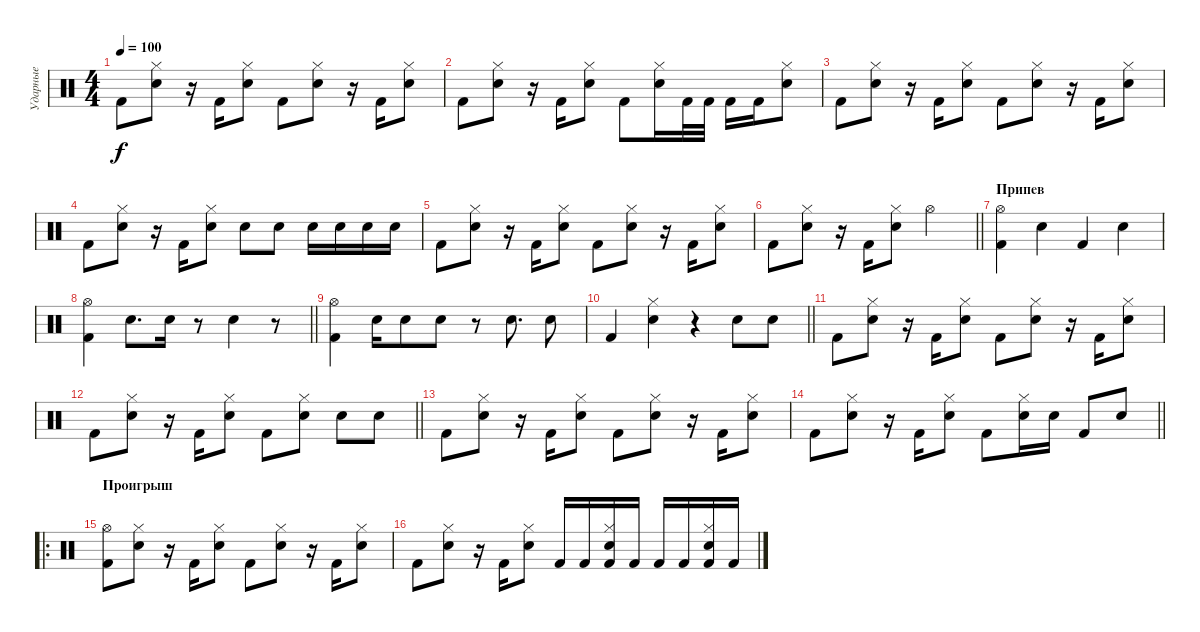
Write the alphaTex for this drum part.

\track ("Ударные" "Ударные") {instrument percussion}
\staff {score}
\articulation defaults
\ts (4 4)
\tempo 100
\clef neutral
\ks c "Kick (hit) 2".8{dy f}
("Hi-Hat (closed)" "Snare (hit) 2").8 r.16 "Kick (hit) 2".16 ("Hi-Hat (closed)" "Snare (hit) 2").8 "Kick (hit) 2".8 ("Hi-Hat (closed)" "Snare (hit) 2").8 r.16 "Kick (hit) 2".16 ("Hi-Hat (closed)" "Snare (hit) 2").8 |
"Kick (hit) 2".8 ("Hi-Hat (closed)" "Snare (hit) 2").8 r.16 "Kick (hit) 2".16 ("Hi-Hat (closed)" "Snare (hit) 2").8 "Kick (hit) 2".8 ("Hi-Hat (closed)" "Snare (hit) 2").16 "Kick (hit) 2".32 "Kick (hit) 2".32 "Kick (hit) 2".16 "Kick (hit) 2".16 ("Hi-Hat (closed)" "Snare (hit) 2").8 |
"Kick (hit) 2".8 ("Hi-Hat (closed)" "Snare (hit) 2").8 r.16 "Kick (hit) 2".16 ("Hi-Hat (closed)" "Snare (hit) 2").8 "Kick (hit) 2".8 ("Hi-Hat (closed)" "Snare (hit) 2").8 r.16 "Kick (hit) 2".16 ("Hi-Hat (closed)" "Snare (hit) 2").8 |
"Kick (hit) 2".8 ("Hi-Hat (closed)" "Snare (hit) 2").8 r.16 "Kick (hit) 2".16 ("Hi-Hat (closed)" "Snare (hit) 2").8 "Snare (hit) 2".8 "Snare (hit) 2".8 "Snare (hit) 2".16 "Snare (hit) 2".16 "Snare (hit) 2".16 "Snare (hit) 2".16 |
"Kick (hit) 2".8 ("Hi-Hat (closed)" "Snare (hit) 2").8 r.16 "Kick (hit) 2".16 ("Hi-Hat (closed)" "Snare (hit) 2").8 "Kick (hit) 2".8 ("Hi-Hat (closed)" "Snare (hit) 2").8 r.16 "Kick (hit) 2".16 ("Hi-Hat (closed)" "Snare (hit) 2").8 |
\barLineRight lightlight "Kick (hit) 2".8
("Hi-Hat (closed)" "Snare (hit) 2").8 r.16 "Kick (hit) 2".16 ("Hi-Hat (closed)" "Snare (hit) 2").8 "Hi-Hat (open)".2 |
\section ("" "Припев")
("Hi-Hat (open)" "Kick (hit) 2").4 "Snare (hit) 2".4 "Kick (hit) 2".4 "Snare (hit) 2".4 |
\barLineRight lightlight
("Hi-Hat (open)" "Kick (hit) 2").4 "Snare (hit) 2".8{d} "Snare (hit) 2".16 r.8 "Snare (hit) 2".4 r.8 |
("Hi-Hat (open)" "Kick (hit) 2").4 "Snare (hit) 2".16 "Snare (hit) 2".8 "Snare (hit) 2".8 r.8 "Snare (hit) 2".8{d} "Snare (hit) 2".8 |
\barLineRight lightlight "Kick (hit) 2".4
("Hi-Hat (closed)" "Snare (hit) 2").4 r.4 "Snare (hit) 2".8 "Snare (hit) 2".8 |
"Kick (hit) 2".8 ("Hi-Hat (closed)" "Snare (hit) 2").8 r.16 "Kick (hit) 2".16 ("Hi-Hat (closed)" "Snare (hit) 2").8 "Kick (hit) 2".8 ("Hi-Hat (closed)" "Snare (hit) 2").8 r.16 "Kick (hit) 2".16 ("Hi-Hat (closed)" "Snare (hit) 2").8 |
\barLineRight lightlight "Kick (hit) 2".8
("Hi-Hat (closed)" "Snare (hit) 2").8 r.16 "Kick (hit) 2".16 ("Hi-Hat (closed)" "Snare (hit) 2").8 "Kick (hit) 2".8 ("Hi-Hat (closed)" "Snare (hit) 2").8 "Snare (hit) 2".8 "Snare (hit) 2".8 |
"Kick (hit) 2".8 ("Hi-Hat (closed)" "Snare (hit) 2").8 r.16 "Kick (hit) 2".16 ("Hi-Hat (closed)" "Snare (hit) 2").8 "Kick (hit) 2".8 ("Hi-Hat (closed)" "Snare (hit) 2").8 r.16 "Kick (hit) 2".16 ("Hi-Hat (closed)" "Snare (hit) 2").8 |
\barLineRight lightlight "Kick (hit) 2".8
("Hi-Hat (closed)" "Snare (hit) 2").8 r.16 "Kick (hit) 2".16 ("Hi-Hat (closed)" "Snare (hit) 2").8 "Kick (hit) 2".8 ("Hi-Hat (closed)" "Snare (hit) 2").16 "Snare (hit) 2".16 "Kick (hit) 2".8 "Snare (hit) 2".8 |
\ro
\section ("" "Проигрыш")
("Hi-Hat (open)" "Kick (hit) 2").8 ("Hi-Hat (closed)" "Snare (hit) 2").8 r.16 "Kick (hit) 2".16 ("Hi-Hat (closed)" "Snare (hit) 2").8 "Kick (hit) 2".8 ("Hi-Hat (closed)" "Snare (hit) 2").8 r.16 "Kick (hit) 2".16 ("Hi-Hat (closed)" "Snare (hit) 2").8 |
"Kick (hit) 2".8 ("Hi-Hat (closed)" "Snare (hit) 2").8 r.16 "Kick (hit) 2".16 ("Hi-Hat (closed)" "Snare (hit) 2").8 "Kick (hit) 2".16 "Kick (hit) 2".16 ("Hi-Hat (closed)" "Snare (hit) 2" "Kick (hit) 2").16 "Kick (hit) 2".16 "Kick (hit) 2".16 "Kick (hit) 2".16 ("Hi-Hat (closed)" "Snare (hit) 2" "Kick (hit) 2").16 "Kick (hit) 2".16
